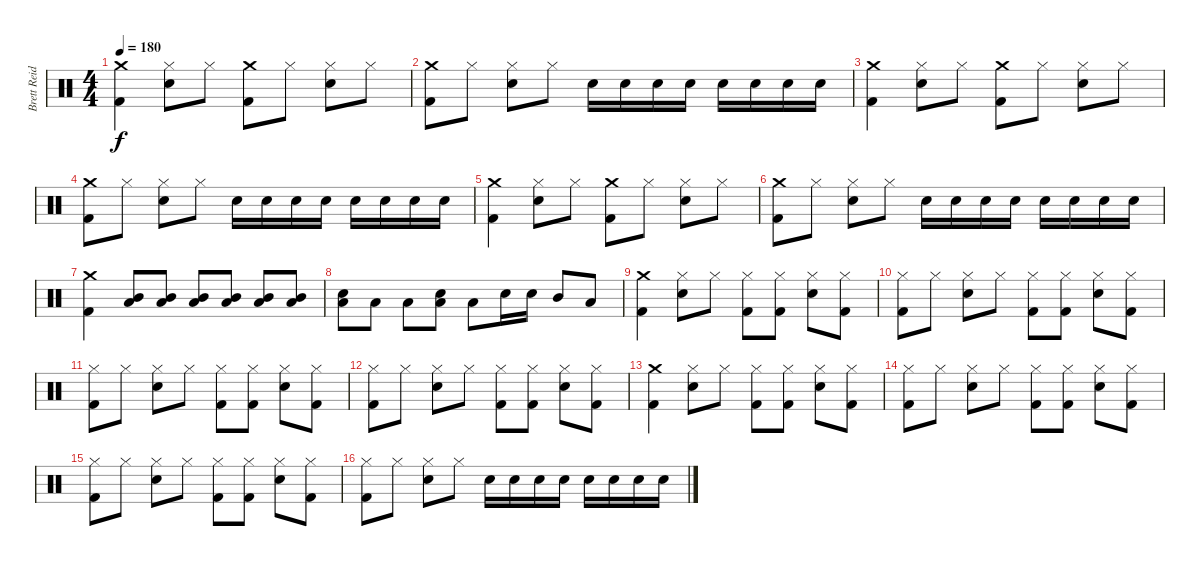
\track ("Brett Reid" "Brett Reid") {instrument percussion}
\staff {score}
\articulation defaults
\ts (4 4)
\tempo 180
\clef neutral
\ks c
("Crash medium (hit)" "Kick (hit) 2").4{dy f} ("Hi-Hat (closed)" "Snare (hit) 2").8 "Hi-Hat (closed)".8 ("Crash medium (hit)" "Kick (hit) 2").8 "Hi-Hat (closed)".8 ("Hi-Hat (closed)" "Snare (hit) 2").8 "Hi-Hat (closed)".8 |
("Crash medium (hit)" "Kick (hit) 2").8 "Hi-Hat (closed)".8 ("Hi-Hat (closed)" "Snare (hit) 2").8 "Hi-Hat (closed)".8 "Snare (hit) 2".16 "Snare (hit) 2".16 "Snare (hit) 2".16 "Snare (hit) 2".16 "Snare (hit) 2".16 "Snare (hit) 2".16 "Snare (hit) 2".16 "Snare (hit) 2".16 |
("Crash medium (hit)" "Kick (hit) 2").4 ("Hi-Hat (closed)" "Snare (hit) 2").8 "Hi-Hat (closed)".8 ("Crash medium (hit)" "Kick (hit) 2").8 "Hi-Hat (closed)".8 ("Hi-Hat (closed)" "Snare (hit) 2").8 "Hi-Hat (closed)".8 |
("Crash medium (hit)" "Kick (hit) 2").8 "Hi-Hat (closed)".8 ("Hi-Hat (closed)" "Snare (hit) 2").8 "Hi-Hat (closed)".8 "Snare (hit) 2".16 "Snare (hit) 2".16 "Snare (hit) 2".16 "Snare (hit) 2".16 "Snare (hit) 2".16 "Snare (hit) 2".16 "Snare (hit) 2".16 "Snare (hit) 2".16 |
("Crash medium (hit)" "Kick (hit) 2").4 ("Hi-Hat (closed)" "Snare (hit) 2").8 "Hi-Hat (closed)".8 ("Crash medium (hit)" "Kick (hit) 2").8 "Hi-Hat (closed)".8 ("Hi-Hat (closed)" "Snare (hit) 2").8 "Hi-Hat (closed)".8 |
("Crash medium (hit)" "Kick (hit) 2").8 "Hi-Hat (closed)".8 ("Hi-Hat (closed)" "Snare (hit) 2").8 "Hi-Hat (closed)".8 "Snare (hit) 2".16 "Snare (hit) 2".16 "Snare (hit) 2".16 "Snare (hit) 2".16 "Snare (hit) 2".16 "Snare (hit) 2".16 "Snare (hit) 2".16 "Snare (hit) 2".16 |
("Crash medium (hit)" "Kick (hit) 2").4 ("Low Floor Tom (hit)" "Mid Tom (hit)").8 ("Low Floor Tom (hit)" "Mid Tom (hit)").8 ("Low Floor Tom (hit)" "Mid Tom (hit)").8 ("Low Floor Tom (hit)" "Mid Tom (hit)").8 ("Low Floor Tom (hit)" "Mid Tom (hit)").8 ("Low Floor Tom (hit)" "Mid Tom (hit)").8 |
("Low Floor Tom (hit)" "Snare (hit) 2").8 "Low Floor Tom (hit)".8 "Low Floor Tom (hit)".8 ("Low Floor Tom (hit)" "Snare (hit) 2").8 "Low Floor Tom (hit)".8 "Snare (hit) 2".16 "Snare (hit) 2".16 "Mid Tom (hit)".8 "Low Floor Tom (hit)".8 |
("Crash medium (hit)" "Kick (hit) 2").4 ("Hi-Hat (closed)" "Snare (hit) 2").8 "Hi-Hat (closed)".8 ("Hi-Hat (closed)" "Kick (hit) 2").8 ("Hi-Hat (closed)" "Kick (hit) 2").8 ("Hi-Hat (closed)" "Snare (hit) 2").8 ("Hi-Hat (closed)" "Kick (hit) 2").8 |
("Hi-Hat (closed)" "Kick (hit) 2").8 "Hi-Hat (closed)".8 ("Hi-Hat (closed)" "Snare (hit) 2").8 "Hi-Hat (closed)".8 ("Hi-Hat (closed)" "Kick (hit) 2").8 ("Hi-Hat (closed)" "Kick (hit) 2").8 ("Hi-Hat (closed)" "Snare (hit) 2").8 ("Hi-Hat (closed)" "Kick (hit) 2").8 |
("Hi-Hat (closed)" "Kick (hit) 2").8 "Hi-Hat (closed)".8 ("Hi-Hat (closed)" "Snare (hit) 2").8 "Hi-Hat (closed)".8 ("Hi-Hat (closed)" "Kick (hit) 2").8 ("Hi-Hat (closed)" "Kick (hit) 2").8 ("Hi-Hat (closed)" "Snare (hit) 2").8 ("Hi-Hat (closed)" "Kick (hit) 2").8 |
("Hi-Hat (closed)" "Kick (hit) 2").8 "Hi-Hat (closed)".8 ("Hi-Hat (closed)" "Snare (hit) 2").8 "Hi-Hat (closed)".8 ("Hi-Hat (closed)" "Kick (hit) 2").8 ("Hi-Hat (closed)" "Kick (hit) 2").8 ("Hi-Hat (closed)" "Snare (hit) 2").8 ("Hi-Hat (closed)" "Kick (hit) 2").8 |
("Crash medium (hit)" "Kick (hit) 2").4 ("Hi-Hat (closed)" "Snare (hit) 2").8 "Hi-Hat (closed)".8 ("Hi-Hat (closed)" "Kick (hit) 2").8 ("Hi-Hat (closed)" "Kick (hit) 2").8 ("Hi-Hat (closed)" "Snare (hit) 2").8 ("Hi-Hat (closed)" "Kick (hit) 2").8 |
("Hi-Hat (closed)" "Kick (hit) 2").8 "Hi-Hat (closed)".8 ("Hi-Hat (closed)" "Snare (hit) 2").8 "Hi-Hat (closed)".8 ("Hi-Hat (closed)" "Kick (hit) 2").8 ("Hi-Hat (closed)" "Kick (hit) 2").8 ("Hi-Hat (closed)" "Snare (hit) 2").8 ("Hi-Hat (closed)" "Kick (hit) 2").8 |
("Hi-Hat (closed)" "Kick (hit) 2").8 "Hi-Hat (closed)".8 ("Hi-Hat (closed)" "Snare (hit) 2").8 "Hi-Hat (closed)".8 ("Hi-Hat (closed)" "Kick (hit) 2").8 ("Hi-Hat (closed)" "Kick (hit) 2").8 ("Hi-Hat (closed)" "Snare (hit) 2").8 ("Hi-Hat (closed)" "Kick (hit) 2").8 |
("Hi-Hat (closed)" "Kick (hit) 2").8 "Hi-Hat (closed)".8 ("Hi-Hat (closed)" "Snare (hit) 2").8 "Hi-Hat (closed)".8 "Snare (hit) 2".16 "Snare (hit) 2".16 "Snare (hit) 2".16 "Snare (hit) 2".16 "Snare (hit) 2".16 "Snare (hit) 2".16 "Snare (hit) 2".16 "Snare (hit) 2".16
